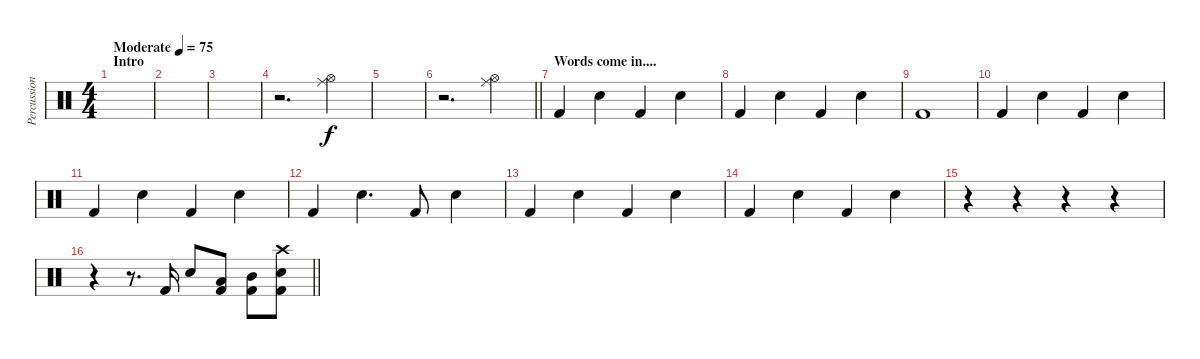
\track ("Percussion" "Percussion") {instrument percussion}
\staff {score}
\articulation defaults
\ts (4 4)
\section ("" "Intro")
\tempo (75 "Moderate")
\clef neutral
\ks c
|
|
|
r.2{d} ("Ride (middle)" "Hi-Hat (open)").4 |
|
\barLineRight lightlight
r.2{d} ("Ride (middle)" "Hi-Hat (open)").4 |
\section ("" "Words come in....")
"Kick (hit) 2".4 "Electric Snare (hit)".4 "Kick (hit) 2".4 "Electric Snare (hit)".4 |
"Kick (hit) 2".4 "Electric Snare (hit)".4 "Kick (hit) 2".4 "Electric Snare (hit)".4 |
"Kick (hit) 2".1 |
"Kick (hit) 2".4 "Electric Snare (hit)".4 "Kick (hit) 2".4 "Electric Snare (hit)".4 |
"Kick (hit) 2".4 "Electric Snare (hit)".4 "Kick (hit) 2".4 "Electric Snare (hit)".4 |
"Kick (hit) 2".4 "Electric Snare (hit)".4{d} "Kick (hit) 2".8 "Electric Snare (hit)".4 |
"Kick (hit) 2".4 "Electric Snare (hit)".4 "Kick (hit) 2".4 "Electric Snare (hit)".4 |
"Kick (hit) 2".4 "Electric Snare (hit)".4 "Kick (hit) 2".4 "Electric Snare (hit)".4 |
r.4 r.4 r.4 r.4 |
\barLineRight lightlight
r.4 r.8{d} "Kick (hit) 2".16 "Electric Snare (hit)".8 ("Low Tom (hit)" "Kick (hit) 2").8 ("Mid Tom (hit)" "Kick (hit) 2").8 ("Crash high (hit)" "Electric Snare (hit)" "Kick (hit) 2").8
